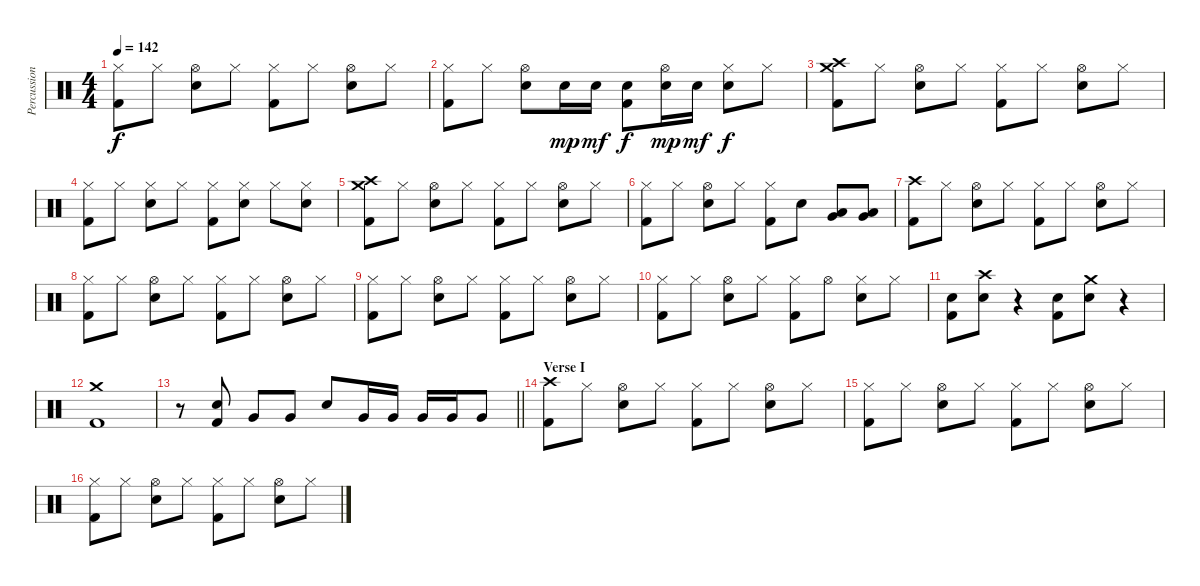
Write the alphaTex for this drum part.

\track ("Percussion" "Percussion") {instrument percussion}
\staff {score}
\articulation defaults
\ts (4 4)
\tempo 142
\clef neutral
\ks c
("Kick (hit) 2" "Hi-Hat (closed)").8{dy f} "Hi-Hat (closed)".8 ("Snare (hit) 2" "Hi-Hat (open)").8 "Hi-Hat (closed)".8 ("Kick (hit) 2" "Hi-Hat (closed)").8 "Hi-Hat (closed)".8 ("Snare (hit) 2" "Hi-Hat (open)").8 "Hi-Hat (closed)".8 |
("Kick (hit) 2" "Hi-Hat (closed)").8 "Hi-Hat (closed)".8 ("Snare (hit) 2" "Hi-Hat (open)").8 "Snare (hit) 2".16{dy mp} "Snare (hit) 2".16{dy mf} ("Kick (hit) 2" "Snare (hit) 2").8{dy f} ("Snare (hit) 2" "Hi-Hat (open)").16{dy mp} "Snare (hit) 2".16{dy mf} ("Snare (hit) 2" "Hi-Hat (closed)").8{dy f} "Hi-Hat (closed)".8 |
("Kick (hit) 2" "Crash high (hit)" "Crash medium (hit)").8 "Hi-Hat (closed)".8 ("Snare (hit) 2" "Hi-Hat (open)").8 "Hi-Hat (closed)".8 ("Kick (hit) 2" "Hi-Hat (closed)").8 "Hi-Hat (closed)".8 ("Snare (hit) 2" "Hi-Hat (open)").8 "Hi-Hat (closed)".8 |
("Kick (hit) 2" "Hi-Hat (closed)").8 "Hi-Hat (closed)".8 ("Snare (hit) 2" "Hi-Hat (closed)").8 "Hi-Hat (closed)".8 ("Kick (hit) 2" "Hi-Hat (closed)").8 ("Snare (hit) 2" "Hi-Hat (closed)").8 "Hi-Hat (closed)".8 ("Snare (hit) 2" "Hi-Hat (closed)").8 |
("Kick (hit) 2" "Crash high (hit)" "Crash medium (hit)").8 "Hi-Hat (closed)".8 ("Snare (hit) 2" "Hi-Hat (open)").8 "Hi-Hat (closed)".8 ("Kick (hit) 2" "Hi-Hat (closed)").8 "Hi-Hat (closed)".8 ("Snare (hit) 2" "Hi-Hat (open)").8 "Hi-Hat (closed)".8 |
("Kick (hit) 2" "Hi-Hat (closed)").8 "Hi-Hat (closed)".8 ("Snare (hit) 2" "Hi-Hat (open)").8 "Hi-Hat (closed)".8 ("Kick (hit) 2" "Hi-Hat (closed)").8 "Snare (hit) 2".8 ("Low Floor Tom (hit)" "Very Low Tom (hit)").8 ("Low Floor Tom (hit)" "Very Low Tom (hit)").8 |
("Kick (hit) 2" "Crash high (hit)").8 "Hi-Hat (closed)".8 ("Snare (hit) 2" "Hi-Hat (open)").8 "Hi-Hat (closed)".8 ("Kick (hit) 2" "Hi-Hat (closed)").8 "Hi-Hat (closed)".8 ("Snare (hit) 2" "Hi-Hat (open)").8 "Hi-Hat (closed)".8 |
("Kick (hit) 2" "Hi-Hat (closed)").8 "Hi-Hat (closed)".8 ("Snare (hit) 2" "Hi-Hat (open)").8 "Hi-Hat (closed)".8 ("Kick (hit) 2" "Hi-Hat (closed)").8 "Hi-Hat (closed)".8 ("Snare (hit) 2" "Hi-Hat (open)").8 "Hi-Hat (closed)".8 |
("Kick (hit) 2" "Hi-Hat (closed)").8 "Hi-Hat (closed)".8 ("Snare (hit) 2" "Hi-Hat (open)").8 "Hi-Hat (closed)".8 ("Kick (hit) 2" "Hi-Hat (closed)").8 "Hi-Hat (closed)".8 ("Snare (hit) 2" "Hi-Hat (open)").8 "Hi-Hat (closed)".8 |
("Kick (hit) 2" "Hi-Hat (closed)").8 "Hi-Hat (closed)".8 ("Snare (hit) 2" "Hi-Hat (open)").8 "Hi-Hat (closed)".8 ("Kick (hit) 2" "Hi-Hat (closed)").8 "Hi-Hat (open)".8 ("Snare (hit) 2" "Hi-Hat (closed)").8 "Hi-Hat (closed)".8 |
("Kick (hit) 2" "Snare (hit) 2").8 ("Snare (hit) 2" "Crash high (hit)").8 r.4 ("Kick (hit) 2" "Snare (hit) 2").8 ("Snare (hit) 2" "Crash medium (hit)").8 r.4 |
("Kick (hit) 2" "Crash medium (hit)").1 |
\barLineRight lightlight
r.8 ("Kick (hit) 2" "Snare (hit) 2").8 "Very Low Tom (hit)".8 "Very Low Tom (hit)".8 "Snare (hit) 2".8 "Very Low Tom (hit)".16 "Very Low Tom (hit)".16 "Very Low Tom (hit)".16 "Very Low Tom (hit)".16 "Very Low Tom (hit)".8 |
\section ("" "Verse I")
("Kick (hit) 2" "Crash high (hit)").8 "Hi-Hat (closed)".8 ("Snare (hit) 2" "Hi-Hat (open)").8 "Hi-Hat (closed)".8 ("Kick (hit) 2" "Hi-Hat (closed)").8 "Hi-Hat (closed)".8 ("Snare (hit) 2" "Hi-Hat (open)").8 "Hi-Hat (closed)".8 |
("Kick (hit) 2" "Hi-Hat (closed)").8 "Hi-Hat (closed)".8 ("Snare (hit) 2" "Hi-Hat (open)").8 "Hi-Hat (closed)".8 ("Kick (hit) 2" "Hi-Hat (closed)").8 "Hi-Hat (closed)".8 ("Snare (hit) 2" "Hi-Hat (open)").8 "Hi-Hat (closed)".8 |
("Kick (hit) 2" "Hi-Hat (closed)").8 "Hi-Hat (closed)".8 ("Snare (hit) 2" "Hi-Hat (open)").8 "Hi-Hat (closed)".8 ("Kick (hit) 2" "Hi-Hat (closed)").8 "Hi-Hat (closed)".8 ("Snare (hit) 2" "Hi-Hat (open)").8 "Hi-Hat (closed)".8
